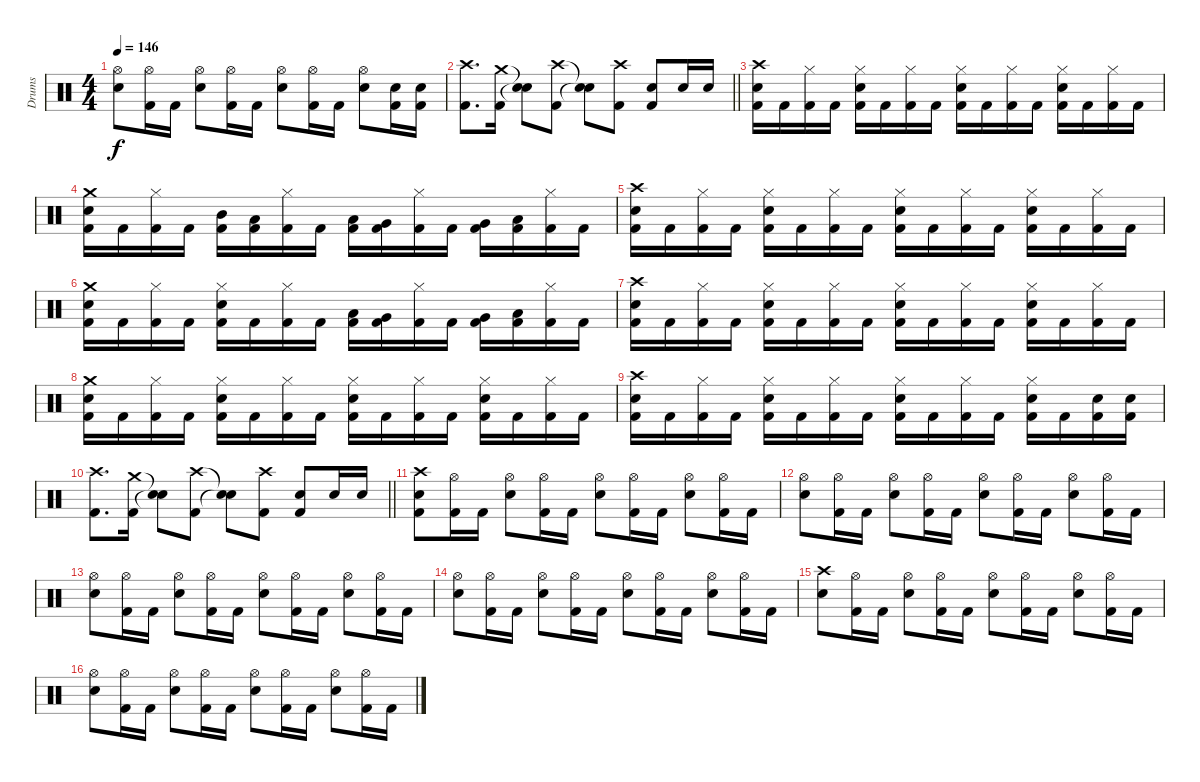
\track ("Drums" "Drums") {instrument percussion}
\staff {score}
\articulation defaults
\ts (4 4)
\tempo 146
\clef neutral
\ks c
("Hi-Hat (open)" "Snare (hit) 2").8{dy f} ("Hi-Hat (open)" "Kick (hit) 2").16 "Kick (hit) 2".16 ("Hi-Hat (open)" "Snare (hit) 2").8 ("Hi-Hat (open)" "Kick (hit) 2").16 "Kick (hit) 2".16 ("Hi-Hat (open)" "Snare (hit) 2").8 ("Hi-Hat (open)" "Kick (hit) 2").16 "Kick (hit) 2".16 ("Hi-Hat (open)" "Snare (hit) 2").8 ("Snare (hit) 2" "Kick (hit) 2").16 ("Snare (hit) 2" "Kick (hit) 2").16 |
\barLineRight lightlight
("Crash high (hit)" "Kick (hit) 2").8{d} ("Crash medium (hit)" "Kick (hit) 2").16 ("Snare (hit)"{t} "Snare (hit)"{t}).8 ("Crash high (hit)" "Kick (hit) 2").8 ("Snare (hit)"{t} "Snare (hit)"{t}).8 ("Crash high (hit)" "Kick (hit) 2").8 ("Snare (hit) 2" "Kick (hit) 2").8 "Snare (hit) 2".16 "Snare (hit) 2".16 |
("Crash high (hit)" "Snare (hit) 2" "Kick (hit) 2").16 "Kick (hit) 2".16 ("Hi-Hat (closed)" "Kick (hit) 2").16 "Kick (hit) 2".16 ("Hi-Hat (closed)" "Snare (hit) 2" "Kick (hit) 2").16 "Kick (hit) 2".16 ("Hi-Hat (closed)" "Kick (hit) 2").16 "Kick (hit) 2".16 ("Hi-Hat (closed)" "Snare (hit) 2" "Kick (hit) 2").16 "Kick (hit) 2".16 ("Hi-Hat (closed)" "Kick (hit) 2").16 "Kick (hit) 2".16 ("Hi-Hat (closed)" "Snare (hit) 2" "Kick (hit) 2").16 "Kick (hit) 2".16 ("Hi-Hat (closed)" "Kick (hit) 2").16 "Kick (hit) 2".16 |
("Crash medium (hit)" "Snare (hit) 2" "Kick (hit) 2").16 "Kick (hit) 2".16 ("Hi-Hat (closed)" "Kick (hit) 2").16 "Kick (hit) 2".16 ("Mid Tom (hit)" "Kick (hit) 2").16 ("Low Tom (hit)" "Kick (hit) 2").16 ("Hi-Hat (closed)" "Kick (hit) 2").16 "Kick (hit) 2".16 ("Low Tom (hit)" "Kick (hit) 2").16 ("Very Low Tom (hit)" "Kick (hit) 2").16 ("Hi-Hat (closed)" "Kick (hit) 2").16 "Kick (hit) 2".16 ("Very Low Tom (hit)" "Kick (hit) 2").16 ("Low Floor Tom (hit)" "Kick (hit) 2").16 ("Hi-Hat (closed)" "Kick (hit) 2").16 "Kick (hit) 2".16 |
("Crash high (hit)" "Snare (hit) 2" "Kick (hit) 2").16 "Kick (hit) 2".16 ("Hi-Hat (closed)" "Kick (hit) 2").16 "Kick (hit) 2".16 ("Hi-Hat (closed)" "Snare (hit) 2" "Kick (hit) 2").16 "Kick (hit) 2".16 ("Hi-Hat (closed)" "Kick (hit) 2").16 "Kick (hit) 2".16 ("Hi-Hat (closed)" "Snare (hit) 2" "Kick (hit) 2").16 "Kick (hit) 2".16 ("Hi-Hat (closed)" "Kick (hit) 2").16 "Kick (hit) 2".16 ("Hi-Hat (closed)" "Snare (hit) 2" "Kick (hit) 2").16 "Kick (hit) 2".16 ("Hi-Hat (closed)" "Kick (hit) 2").16 "Kick (hit) 2".16 |
("Crash medium (hit)" "Snare (hit) 2" "Kick (hit) 2").16 "Kick (hit) 2".16 ("Hi-Hat (closed)" "Kick (hit) 2").16 "Kick (hit) 2".16 ("Hi-Hat (closed)" "Snare (hit) 2" "Kick (hit) 2").16 "Kick (hit) 2".16 ("Hi-Hat (closed)" "Kick (hit) 2").16 "Kick (hit) 2".16 ("Low Tom (hit)" "Kick (hit) 2").16 ("Very Low Tom (hit)" "Kick (hit) 2").16 ("Hi-Hat (closed)" "Kick (hit) 2").16 "Kick (hit) 2".16 ("Very Low Tom (hit)" "Kick (hit) 2").16 ("Low Floor Tom (hit)" "Kick (hit) 2").16 ("Hi-Hat (closed)" "Kick (hit) 2").16 "Kick (hit) 2".16 |
("Crash high (hit)" "Snare (hit) 2" "Kick (hit) 2").16 "Kick (hit) 2".16 ("Hi-Hat (closed)" "Kick (hit) 2").16 "Kick (hit) 2".16 ("Hi-Hat (closed)" "Snare (hit) 2" "Kick (hit) 2").16 "Kick (hit) 2".16 ("Hi-Hat (closed)" "Kick (hit) 2").16 "Kick (hit) 2".16 ("Hi-Hat (closed)" "Snare (hit) 2" "Kick (hit) 2").16 "Kick (hit) 2".16 ("Hi-Hat (closed)" "Kick (hit) 2").16 "Kick (hit) 2".16 ("Hi-Hat (closed)" "Snare (hit) 2" "Kick (hit) 2").16 "Kick (hit) 2".16 ("Hi-Hat (closed)" "Kick (hit) 2").16 "Kick (hit) 2".16 |
("Crash medium (hit)" "Snare (hit) 2" "Kick (hit) 2").16 "Kick (hit) 2".16 ("Hi-Hat (closed)" "Kick (hit) 2").16 "Kick (hit) 2".16 ("Hi-Hat (closed)" "Snare (hit) 2" "Kick (hit) 2").16 "Kick (hit) 2".16 ("Hi-Hat (closed)" "Kick (hit) 2").16 "Kick (hit) 2".16 ("Hi-Hat (closed)" "Snare (hit) 2" "Kick (hit) 2").16 "Kick (hit) 2".16 ("Hi-Hat (closed)" "Kick (hit) 2").16 "Kick (hit) 2".16 ("Hi-Hat (closed)" "Snare (hit) 2" "Kick (hit) 2").16 "Kick (hit) 2".16 ("Hi-Hat (closed)" "Kick (hit) 2").16 "Kick (hit) 2".16 |
("Crash high (hit)" "Snare (hit) 2" "Kick (hit) 2").16 "Kick (hit) 2".16 ("Hi-Hat (closed)" "Kick (hit) 2").16 "Kick (hit) 2".16 ("Hi-Hat (closed)" "Snare (hit) 2" "Kick (hit) 2").16 "Kick (hit) 2".16 ("Hi-Hat (closed)" "Kick (hit) 2").16 "Kick (hit) 2".16 ("Hi-Hat (closed)" "Snare (hit) 2" "Kick (hit) 2").16 "Kick (hit) 2".16 ("Hi-Hat (closed)" "Kick (hit) 2").16 "Kick (hit) 2".16 ("Hi-Hat (closed)" "Snare (hit) 2" "Kick (hit) 2").16 "Kick (hit) 2".16 ("Snare (hit) 2" "Kick (hit) 2").16 ("Snare (hit) 2" "Kick (hit) 2").16 |
\barLineRight lightlight
("Crash high (hit)" "Kick (hit) 2").8{d} ("Crash medium (hit)" "Kick (hit) 2").16 ("Snare (hit)"{t} "Snare (hit)"{t}).8 ("Crash high (hit)" "Kick (hit) 2").8 ("Snare (hit)"{t} "Snare (hit)"{t}).8 ("Crash high (hit)" "Kick (hit) 2").8 ("Snare (hit) 2" "Kick (hit) 2").8 "Snare (hit) 2".16 "Snare (hit) 2".16 |
("Crash high (hit)" "Snare (hit) 2" "Kick (hit) 2").8 ("Hi-Hat (open)" "Kick (hit) 2").16 "Kick (hit) 2".16 ("Hi-Hat (open)" "Snare (hit) 2").8 ("Hi-Hat (open)" "Kick (hit) 2").16 "Kick (hit) 2".16 ("Hi-Hat (open)" "Snare (hit) 2").8 ("Hi-Hat (open)" "Kick (hit) 2").16 "Kick (hit) 2".16 ("Hi-Hat (open)" "Snare (hit) 2").8 ("Hi-Hat (open)" "Kick (hit) 2").16 "Kick (hit) 2".16 |
("Hi-Hat (open)" "Snare (hit) 2").8 ("Hi-Hat (open)" "Kick (hit) 2").16 "Kick (hit) 2".16 ("Hi-Hat (open)" "Snare (hit) 2").8 ("Hi-Hat (open)" "Kick (hit) 2").16 "Kick (hit) 2".16 ("Hi-Hat (open)" "Snare (hit) 2").8 ("Hi-Hat (open)" "Kick (hit) 2").16 "Kick (hit) 2".16 ("Hi-Hat (open)" "Snare (hit) 2").8 ("Hi-Hat (open)" "Kick (hit) 2").16 "Kick (hit) 2".16 |
("Hi-Hat (open)" "Snare (hit) 2").8 ("Hi-Hat (open)" "Kick (hit) 2").16 "Kick (hit) 2".16 ("Hi-Hat (open)" "Snare (hit) 2").8 ("Hi-Hat (open)" "Kick (hit) 2").16 "Kick (hit) 2".16 ("Hi-Hat (open)" "Snare (hit) 2").8 ("Hi-Hat (open)" "Kick (hit) 2").16 "Kick (hit) 2".16 ("Hi-Hat (open)" "Snare (hit) 2").8 ("Hi-Hat (open)" "Kick (hit) 2").16 "Kick (hit) 2".16 |
("Hi-Hat (open)" "Snare (hit) 2").8 ("Hi-Hat (open)" "Kick (hit) 2").16 "Kick (hit) 2".16 ("Hi-Hat (open)" "Snare (hit) 2").8 ("Hi-Hat (open)" "Kick (hit) 2").16 "Kick (hit) 2".16 ("Hi-Hat (open)" "Snare (hit) 2").8 ("Hi-Hat (open)" "Kick (hit) 2").16 "Kick (hit) 2".16 ("Hi-Hat (open)" "Snare (hit) 2").8 ("Hi-Hat (open)" "Kick (hit) 2").16 "Kick (hit) 2".16 |
("Crash high (hit)" "Snare (hit) 2").8 ("Hi-Hat (open)" "Kick (hit) 2").16 "Kick (hit) 2".16 ("Hi-Hat (open)" "Snare (hit) 2").8 ("Hi-Hat (open)" "Kick (hit) 2").16 "Kick (hit) 2".16 ("Hi-Hat (open)" "Snare (hit) 2").8 ("Hi-Hat (open)" "Kick (hit) 2").16 "Kick (hit) 2".16 ("Hi-Hat (open)" "Snare (hit) 2").8 ("Hi-Hat (open)" "Kick (hit) 2").16 "Kick (hit) 2".16 |
("Hi-Hat (open)" "Snare (hit) 2").8 ("Hi-Hat (open)" "Kick (hit) 2").16 "Kick (hit) 2".16 ("Hi-Hat (open)" "Snare (hit) 2").8 ("Hi-Hat (open)" "Kick (hit) 2").16 "Kick (hit) 2".16 ("Hi-Hat (open)" "Snare (hit) 2").8 ("Hi-Hat (open)" "Kick (hit) 2").16 "Kick (hit) 2".16 ("Hi-Hat (open)" "Snare (hit) 2").8 ("Hi-Hat (open)" "Kick (hit) 2").16 "Kick (hit) 2".16
